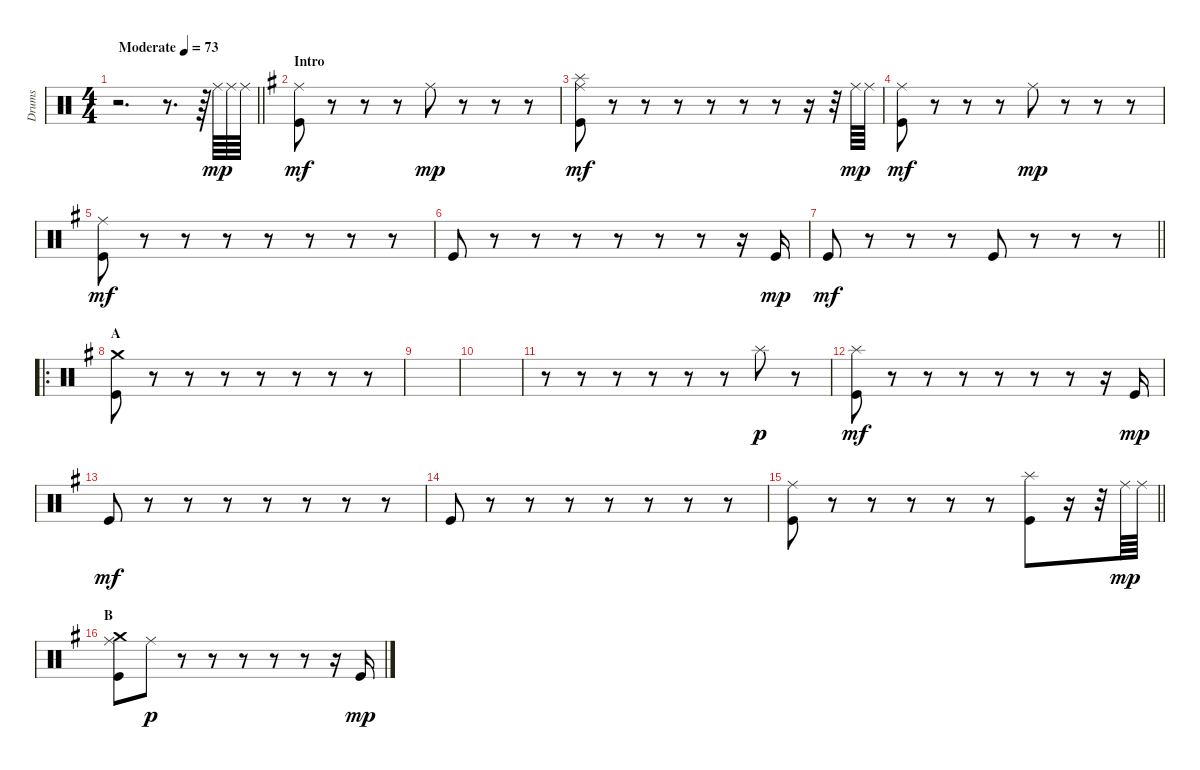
\track ("Drums" "Drums") {instrument percussion}
\staff {score}
\articulation defaults
\ts (4 4)
\tempo (73 "Moderate")
\clef neutral
\barLineRight lightlight
\ks c
r.2{d dy mp} r.8{d} r.64 "Ride (middle)".64 "Ride (middle)".64 "Ride (middle)".64 |
\section ("" "Intro")
\ks g
("Ride (middle)" "Kick (hit)").8{dy mf} r.8 r.8 r.8 "Ride (middle)".8{dy mp} r.8 r.8 r.8 |
("Ride (middle)" "Splash (hit)" "Kick (hit)").8{dy mf} r.8 r.8 r.8 r.8 r.8 r.8 r.16 r.32 "Ride (middle)".64{dy mp} "Ride (middle)".64 |
("Ride (middle)" "Kick (hit)").8{dy mf} r.8 r.8 r.8 "Ride (middle)".8{dy mp} r.8 r.8 r.8 |
("Ride (middle)" "Kick (hit)").8{dy mf} r.8 r.8 r.8 r.8 r.8 r.8 r.8 |
"Kick (hit)".8 r.8 r.8 r.8 r.8 r.8 r.8 r.16 "Kick (hit)".16{dy mp} |
\barLineRight lightlight "Kick (hit)".8{dy mf}
r.8 r.8 r.8 "Kick (hit)".8 r.8 r.8 r.8 |
\ro
\section ("" "A")
("Crash medium (hit)" "Kick (hit)").8 r.8 r.8 r.8 r.8 r.8 r.8 r.8 |
|
|
r.8 r.8 r.8 r.8 r.8 r.8 "Splash (hit)".8{dy p} r.8 |
("Splash (hit)" "Kick (hit)").8{dy mf} r.8 r.8 r.8 r.8 r.8 r.8 r.16 "Kick (hit)".16{dy mp} |
"Kick (hit)".8{dy mf} r.8 r.8 r.8 r.8 r.8 r.8 r.8 |
"Kick (hit)".8 r.8 r.8 r.8 r.8 r.8 r.8 r.8 |
\barLineRight lightlight
("Ride (middle)" "Kick (hit)").8 r.8 r.8 r.8 r.8 r.8 ("Splash (hit)" "Kick (hit)").8 r.16 r.32 "Ride (middle)".64{dy mp} "Ride (middle)".64 |
\section ("" "B")
("Ride (middle)" "Crash medium (hit)" "Kick (hit)").8 "Ride (middle)".8{dy p} r.8 r.8 r.8 r.8 r.8 r.16 "Kick (hit)".16{dy mp}
